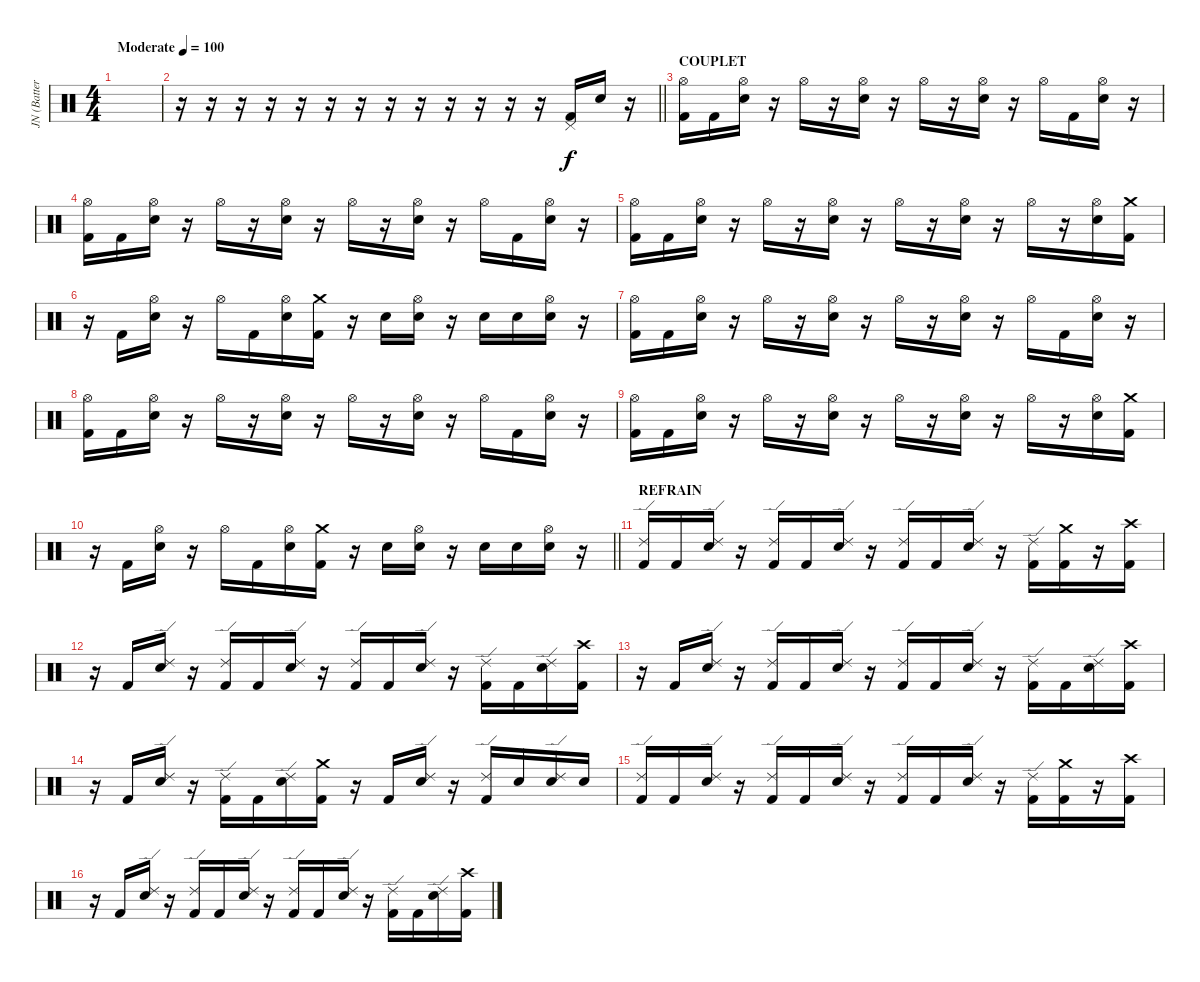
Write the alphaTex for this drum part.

\track ("JN (Batterie)" "JN (Batter") {instrument percussion}
\staff {score}
\articulation defaults
\ts (4 4)
\tempo (100 "Moderate")
\clef neutral
\ks c
|
\barLineRight lightlight
r.16 r.16 r.16 r.16 r.16 r.16 r.16 r.16 r.16 r.16 r.16 r.16 r.16 ("Pedal Hi-Hat (hit)" "Kick (hit) 2").16 "Electric Snare (hit)".16 r.16 |
\section ("" "COUPLET")
("Hi-Hat (open)" "Kick (hit) 2").16 "Kick (hit) 2".16 ("Hi-Hat (open)" "Electric Snare (hit)").16 r.16 "Hi-Hat (open)".16 r.16 ("Hi-Hat (open)" "Electric Snare (hit)").16 r.16 "Hi-Hat (open)".16 r.16 ("Hi-Hat (open)" "Electric Snare (hit)").16 r.16 "Hi-Hat (open)".16 "Kick (hit) 2".16 ("Hi-Hat (open)" "Electric Snare (hit)").16 r.16 |
("Hi-Hat (open)" "Kick (hit) 2").16 "Kick (hit) 2".16 ("Hi-Hat (open)" "Electric Snare (hit)").16 r.16 "Hi-Hat (open)".16 r.16 ("Hi-Hat (open)" "Electric Snare (hit)").16 r.16 "Hi-Hat (open)".16 r.16 ("Hi-Hat (open)" "Electric Snare (hit)").16 r.16 "Hi-Hat (open)".16 "Kick (hit) 2".16 ("Hi-Hat (open)" "Electric Snare (hit)").16 r.16 |
("Hi-Hat (open)" "Kick (hit) 2").16 "Kick (hit) 2".16 ("Hi-Hat (open)" "Electric Snare (hit)").16 r.16 "Hi-Hat (open)".16 r.16 ("Hi-Hat (open)" "Electric Snare (hit)").16 r.16 "Hi-Hat (open)".16 r.16 ("Hi-Hat (open)" "Electric Snare (hit)").16 r.16 "Hi-Hat (open)".16 r.16 ("Hi-Hat (open)" "Electric Snare (hit)").16 ("Crash medium (hit)" "Kick (hit) 2").16 |
r.16 "Kick (hit) 2".16 ("Hi-Hat (open)" "Electric Snare (hit)").16 r.16 "Hi-Hat (open)".16 "Kick (hit) 2".16 ("Hi-Hat (open)" "Electric Snare (hit)").16 ("Crash medium (hit)" "Kick (hit) 2").16 r.16 "Electric Snare (hit)".16 ("Hi-Hat (open)" "Electric Snare (hit)").16 r.16 "Electric Snare (hit)".16 "Electric Snare (hit)".16 ("Hi-Hat (open)" "Electric Snare (hit)").16 r.16 |
("Hi-Hat (open)" "Kick (hit) 2").16 "Kick (hit) 2".16 ("Hi-Hat (open)" "Electric Snare (hit)").16 r.16 "Hi-Hat (open)".16 r.16 ("Hi-Hat (open)" "Electric Snare (hit)").16 r.16 "Hi-Hat (open)".16 r.16 ("Hi-Hat (open)" "Electric Snare (hit)").16 r.16 "Hi-Hat (open)".16 "Kick (hit) 2".16 ("Hi-Hat (open)" "Electric Snare (hit)").16 r.16 |
("Hi-Hat (open)" "Kick (hit) 2").16 "Kick (hit) 2".16 ("Hi-Hat (open)" "Electric Snare (hit)").16 r.16 "Hi-Hat (open)".16 r.16 ("Hi-Hat (open)" "Electric Snare (hit)").16 r.16 "Hi-Hat (open)".16 r.16 ("Hi-Hat (open)" "Electric Snare (hit)").16 r.16 "Hi-Hat (open)".16 "Kick (hit) 2".16 ("Hi-Hat (open)" "Electric Snare (hit)").16 r.16 |
("Hi-Hat (open)" "Kick (hit) 2").16 "Kick (hit) 2".16 ("Hi-Hat (open)" "Electric Snare (hit)").16 r.16 "Hi-Hat (open)".16 r.16 ("Hi-Hat (open)" "Electric Snare (hit)").16 r.16 "Hi-Hat (open)".16 r.16 ("Hi-Hat (open)" "Electric Snare (hit)").16 r.16 "Hi-Hat (open)".16 r.16 ("Hi-Hat (open)" "Electric Snare (hit)").16 ("Crash medium (hit)" "Kick (hit) 2").16 |
\barLineRight lightlight
r.16 "Kick (hit) 2".16 ("Hi-Hat (open)" "Electric Snare (hit)").16 r.16 "Hi-Hat (open)".16 "Kick (hit) 2".16 ("Hi-Hat (open)" "Electric Snare (hit)").16 ("Crash medium (hit)" "Kick (hit) 2").16 r.16 "Electric Snare (hit)".16 ("Hi-Hat (open)" "Electric Snare (hit)").16 r.16 "Electric Snare (hit)".16 "Electric Snare (hit)".16 ("Hi-Hat (open)" "Electric Snare (hit)").16 r.16 |
\section ("" "REFRAIN")
("Ride (edge) 2" "Kick (hit) 2").16 "Kick (hit) 2".16 ("Ride (edge) 2" "Electric Snare (hit)").16 r.16 ("Ride (edge) 2" "Kick (hit) 2").16 "Kick (hit) 2".16 ("Ride (edge) 2" "Electric Snare (hit)").16 r.16 ("Ride (edge) 2" "Kick (hit) 2").16 "Kick (hit) 2".16 ("Ride (edge) 2" "Electric Snare (hit)").16 r.16 ("Ride (edge) 2" "Kick (hit) 2").16 ("Crash medium (hit)" "Kick (hit) 2").16 r.16 ("Crash high (hit)" "Kick (hit) 2").16 |
r.16 "Kick (hit) 2".16 ("Ride (edge) 2" "Electric Snare (hit)").16 r.16 ("Ride (edge) 2" "Kick (hit) 2").16 "Kick (hit) 2".16 ("Ride (edge) 2" "Electric Snare (hit)").16 r.16 ("Ride (edge) 2" "Kick (hit) 2").16 "Kick (hit) 2".16 ("Ride (edge) 2" "Electric Snare (hit)").16 r.16 ("Ride (edge) 2" "Kick (hit) 2").16 "Kick (hit) 2".16 ("Ride (edge) 2" "Electric Snare (hit)").16 ("Crash high (hit)" "Kick (hit) 2").16 |
r.16 "Kick (hit) 2".16 ("Ride (edge) 2" "Electric Snare (hit)").16 r.16 ("Ride (edge) 2" "Kick (hit) 2").16 "Kick (hit) 2".16 ("Ride (edge) 2" "Electric Snare (hit)").16 r.16 ("Ride (edge) 2" "Kick (hit) 2").16 "Kick (hit) 2".16 ("Ride (edge) 2" "Electric Snare (hit)").16 r.16 ("Ride (edge) 2" "Kick (hit) 2").16 "Kick (hit) 2".16 ("Ride (edge) 2" "Electric Snare (hit)").16 ("Crash high (hit)" "Kick (hit) 2").16 |
r.16 "Kick (hit) 2".16 ("Ride (edge) 2" "Electric Snare (hit)").16 r.16 ("Ride (edge) 2" "Kick (hit) 2").16 "Kick (hit) 2".16 ("Ride (edge) 2" "Electric Snare (hit)").16 ("Crash medium (hit)" "Kick (hit) 2").16 r.16 "Kick (hit) 2".16 ("Ride (edge) 2" "Electric Snare (hit)").16 r.16 ("Ride (edge) 2" "Kick (hit) 2").16 "Electric Snare (hit)".16 ("Ride (edge) 2" "Electric Snare (hit)").16 "Electric Snare (hit)".16 |
("Ride (edge) 2" "Kick (hit) 2").16 "Kick (hit) 2".16 ("Ride (edge) 2" "Electric Snare (hit)").16 r.16 ("Ride (edge) 2" "Kick (hit) 2").16 "Kick (hit) 2".16 ("Ride (edge) 2" "Electric Snare (hit)").16 r.16 ("Ride (edge) 2" "Kick (hit) 2").16 "Kick (hit) 2".16 ("Ride (edge) 2" "Electric Snare (hit)").16 r.16 ("Ride (edge) 2" "Kick (hit) 2").16 ("Crash medium (hit)" "Kick (hit) 2").16 r.16 ("Crash high (hit)" "Kick (hit) 2").16 |
r.16 "Kick (hit) 2".16 ("Ride (edge) 2" "Electric Snare (hit)").16 r.16 ("Ride (edge) 2" "Kick (hit) 2").16 "Kick (hit) 2".16 ("Ride (edge) 2" "Electric Snare (hit)").16 r.16 ("Ride (edge) 2" "Kick (hit) 2").16 "Kick (hit) 2".16 ("Ride (edge) 2" "Electric Snare (hit)").16 r.16 ("Ride (edge) 2" "Kick (hit) 2").16 "Kick (hit) 2".16 ("Ride (edge) 2" "Electric Snare (hit)").16 ("Crash high (hit)" "Kick (hit) 2").16
